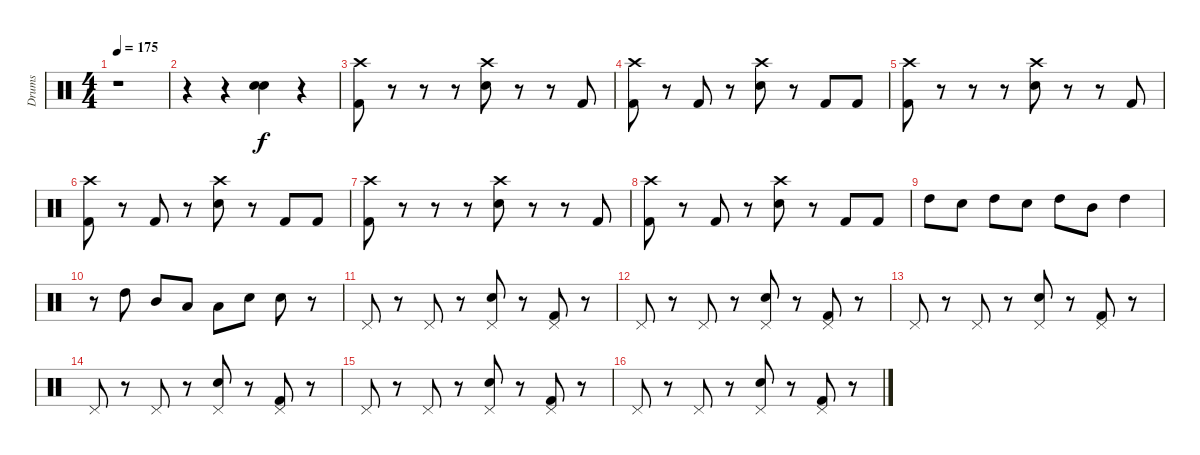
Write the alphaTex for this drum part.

\track ("Drums" "Drums") {instrument percussion}
\staff {score}
\articulation defaults
\ts (4 4)
\tempo 175
\clef neutral
\ks c
r.1{dy f} |
r.4 r.4 ("Snare (hit) 2" "Electric Snare (hit)").4 r.4 |
("Crash high (hit)" "Kick (hit) 2").8 r.8 r.8 r.8 ("Crash high (hit)" "Electric Snare (hit)").8 r.8 r.8 "Kick (hit) 2".8 |
("Crash high (hit)" "Kick (hit) 2").8 r.8 "Kick (hit) 2".8 r.8 ("Crash high (hit)" "Electric Snare (hit)").8 r.8 "Kick (hit) 2".8 "Kick (hit) 2".8 |
("Crash high (hit)" "Kick (hit) 2").8 r.8 r.8 r.8 ("Crash high (hit)" "Electric Snare (hit)").8 r.8 r.8 "Kick (hit) 2".8 |
("Crash high (hit)" "Kick (hit) 2").8 r.8 "Kick (hit) 2".8 r.8 ("Crash high (hit)" "Electric Snare (hit)").8 r.8 "Kick (hit) 2".8 "Kick (hit) 2".8 |
("Crash high (hit)" "Kick (hit) 2").8 r.8 r.8 r.8 ("Crash high (hit)" "Electric Snare (hit)").8 r.8 r.8 "Kick (hit) 2".8 |
("Crash high (hit)" "Kick (hit) 2").8 r.8 "Kick (hit) 2".8 r.8 ("Crash high (hit)" "Electric Snare (hit)").8 r.8 "Kick (hit) 2".8 "Kick (hit) 2".8 |
"High Tom (hit)".8 "Snare (hit) 2".8 "High Tom (hit)".8 "Snare (hit) 2".8 "High Tom (hit)".8 "Mid Tom (hit)".8 "High Tom (hit)".4 |
r.8 "High Tom (hit)".8 "Mid Tom (hit)".8 "Low Tom (hit)".8 "Low Tom (hit)".8 "Snare (hit) 2".8 "Snare (hit) 2".8 r.8 |
"Pedal Hi-Hat (hit)".8 r.8 "Pedal Hi-Hat (hit)".8 r.8 ("Pedal Hi-Hat (hit)" "Electric Snare (hit)").8 r.8 ("Pedal Hi-Hat (hit)" "Kick (hit) 2").8 r.8 |
"Pedal Hi-Hat (hit)".8 r.8 "Pedal Hi-Hat (hit)".8 r.8 ("Pedal Hi-Hat (hit)" "Electric Snare (hit)").8 r.8 ("Pedal Hi-Hat (hit)" "Kick (hit) 2").8 r.8 |
"Pedal Hi-Hat (hit)".8 r.8 "Pedal Hi-Hat (hit)".8 r.8 ("Pedal Hi-Hat (hit)" "Electric Snare (hit)").8 r.8 ("Pedal Hi-Hat (hit)" "Kick (hit) 2").8 r.8 |
"Pedal Hi-Hat (hit)".8 r.8 "Pedal Hi-Hat (hit)".8 r.8 ("Pedal Hi-Hat (hit)" "Electric Snare (hit)").8 r.8 ("Pedal Hi-Hat (hit)" "Kick (hit) 2").8 r.8 |
"Pedal Hi-Hat (hit)".8 r.8 "Pedal Hi-Hat (hit)".8 r.8 ("Pedal Hi-Hat (hit)" "Electric Snare (hit)").8 r.8 ("Pedal Hi-Hat (hit)" "Kick (hit) 2").8 r.8 |
"Pedal Hi-Hat (hit)".8 r.8 "Pedal Hi-Hat (hit)".8 r.8 ("Pedal Hi-Hat (hit)" "Electric Snare (hit)").8 r.8 ("Pedal Hi-Hat (hit)" "Kick (hit) 2").8 r.8
